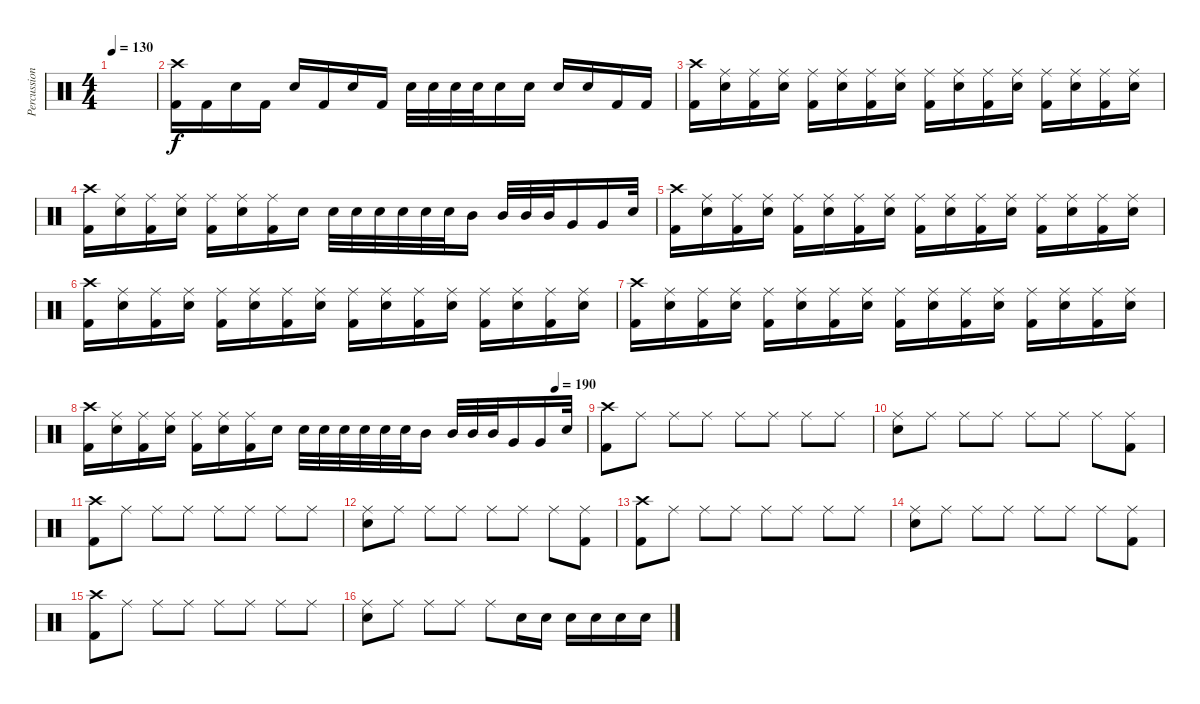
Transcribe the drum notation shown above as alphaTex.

\track ("Percussion" "Percussion") {instrument percussion}
\staff {score}
\articulation defaults
\ts (4 4)
\tempo 130
\clef neutral
\ks c
|
("Crash high (hit)" "Kick (hit) 2").16 "Kick (hit) 2".16 "Electric Snare (hit)".16 "Kick (hit) 2".16 "Electric Snare (hit)".16 "Kick (hit) 2".16 "Electric Snare (hit)".16 "Kick (hit) 2".16 "Electric Snare (hit)".32 "Electric Snare (hit)".32 "Electric Snare (hit)".32 "Electric Snare (hit)".32 "Electric Snare (hit)".16 "Electric Snare (hit)".16 "Electric Snare (hit)".16 "Electric Snare (hit)".16 "Kick (hit) 2".16 "Kick (hit) 2".16 |
("Crash high (hit)" "Kick (hit) 2").16 ("Ride (middle)" "Electric Snare (hit)").16 ("Ride (middle)" "Kick (hit) 2").16 ("Ride (middle)" "Electric Snare (hit)").16 ("Ride (middle)" "Kick (hit) 2").16 ("Ride (middle)" "Electric Snare (hit)").16 ("Ride (middle)" "Kick (hit) 2").16 ("Ride (middle)" "Electric Snare (hit)").16 ("Ride (middle)" "Kick (hit) 2").16 ("Ride (middle)" "Electric Snare (hit)").16 ("Ride (middle)" "Kick (hit) 2").16 ("Ride (middle)" "Electric Snare (hit)").16 ("Ride (middle)" "Kick (hit) 2").16 ("Ride (middle)" "Electric Snare (hit)").16 ("Ride (middle)" "Kick (hit) 2").16 ("Ride (middle)" "Electric Snare (hit)").16 |
("Crash high (hit)" "Kick (hit) 2").16 ("Ride (middle)" "Electric Snare (hit)").16 ("Ride (middle)" "Kick (hit) 2").16 ("Ride (middle)" "Electric Snare (hit)").16 ("Ride (middle)" "Kick (hit) 2").16 ("Ride (middle)" "Electric Snare (hit)").16 ("Ride (middle)" "Kick (hit) 2").16 "Electric Snare (hit)".16 "Electric Snare (hit)".32 "Electric Snare (hit)".32 "Electric Snare (hit)".32 "Electric Snare (hit)".32 "Electric Snare (hit)".32 "Electric Snare (hit)".32 "Mid Tom (hit)".16 "Mid Tom (hit)".32 "Mid Tom (hit)".32 "Mid Tom (hit)".32 "Very Low Tom (hit)".16 "Very Low Tom (hit)".16 "Electric Snare (hit)".32 |
("Crash high (hit)" "Kick (hit) 2").16 ("Ride (middle)" "Electric Snare (hit)").16 ("Ride (middle)" "Kick (hit) 2").16 ("Ride (middle)" "Electric Snare (hit)").16 ("Ride (middle)" "Kick (hit) 2").16 ("Ride (middle)" "Electric Snare (hit)").16 ("Ride (middle)" "Kick (hit) 2").16 ("Ride (middle)" "Electric Snare (hit)").16 ("Ride (middle)" "Kick (hit) 2").16 ("Ride (middle)" "Electric Snare (hit)").16 ("Ride (middle)" "Kick (hit) 2").16 ("Ride (middle)" "Electric Snare (hit)").16 ("Ride (middle)" "Kick (hit) 2").16 ("Ride (middle)" "Electric Snare (hit)").16 ("Ride (middle)" "Kick (hit) 2").16 ("Ride (middle)" "Electric Snare (hit)").16 |
("Crash high (hit)" "Kick (hit) 2").16 ("Ride (middle)" "Electric Snare (hit)").16 ("Ride (middle)" "Kick (hit) 2").16 ("Ride (middle)" "Electric Snare (hit)").16 ("Ride (middle)" "Kick (hit) 2").16 ("Ride (middle)" "Electric Snare (hit)").16 ("Ride (middle)" "Kick (hit) 2").16 ("Ride (middle)" "Electric Snare (hit)").16 ("Ride (middle)" "Kick (hit) 2").16 ("Ride (middle)" "Electric Snare (hit)").16 ("Ride (middle)" "Kick (hit) 2").16 ("Ride (middle)" "Electric Snare (hit)").16 ("Ride (middle)" "Kick (hit) 2").16 ("Ride (middle)" "Electric Snare (hit)").16 ("Ride (middle)" "Kick (hit) 2").16 ("Ride (middle)" "Electric Snare (hit)").16 |
("Crash high (hit)" "Kick (hit) 2").16 ("Ride (middle)" "Electric Snare (hit)").16 ("Ride (middle)" "Kick (hit) 2").16 ("Ride (middle)" "Electric Snare (hit)").16 ("Ride (middle)" "Kick (hit) 2").16 ("Ride (middle)" "Electric Snare (hit)").16 ("Ride (middle)" "Kick (hit) 2").16 ("Ride (middle)" "Electric Snare (hit)").16 ("Ride (middle)" "Kick (hit) 2").16 ("Ride (middle)" "Electric Snare (hit)").16 ("Ride (middle)" "Kick (hit) 2").16 ("Ride (middle)" "Electric Snare (hit)").16 ("Ride (middle)" "Kick (hit) 2").16 ("Ride (middle)" "Electric Snare (hit)").16 ("Ride (middle)" "Kick (hit) 2").16 ("Ride (middle)" "Electric Snare (hit)").16 |
\tempo (190 0.9375)
("Crash high (hit)" "Kick (hit) 2").16 ("Ride (middle)" "Electric Snare (hit)").16 ("Ride (middle)" "Kick (hit) 2").16 ("Ride (middle)" "Electric Snare (hit)").16 ("Ride (middle)" "Kick (hit) 2").16 ("Ride (middle)" "Electric Snare (hit)").16 ("Ride (middle)" "Kick (hit) 2").16 "Electric Snare (hit)".16 "Electric Snare (hit)".32 "Electric Snare (hit)".32 "Electric Snare (hit)".32 "Electric Snare (hit)".32 "Electric Snare (hit)".32 "Electric Snare (hit)".32 "Mid Tom (hit)".16 "Mid Tom (hit)".32 "Mid Tom (hit)".32 "Mid Tom (hit)".32 "Very Low Tom (hit)".16 "Very Low Tom (hit)".16 "Electric Snare (hit)".32 |
("Crash high (hit)" "Kick (hit) 2").8 "Ride (middle)".8 "Ride (middle)".8 "Ride (middle)".8 "Ride (middle)".8 "Ride (middle)".8 "Ride (middle)".8 "Ride (middle)".8 |
("Ride (middle)" "Electric Snare (hit)").8 "Ride (middle)".8 "Ride (middle)".8 "Ride (middle)".8 "Ride (middle)".8 "Ride (middle)".8 "Ride (middle)".8 ("Ride (middle)" "Kick (hit) 2").8 |
("Crash high (hit)" "Kick (hit) 2").8 "Ride (middle)".8 "Ride (middle)".8 "Ride (middle)".8 "Ride (middle)".8 "Ride (middle)".8 "Ride (middle)".8 "Ride (middle)".8 |
("Ride (middle)" "Electric Snare (hit)").8 "Ride (middle)".8 "Ride (middle)".8 "Ride (middle)".8 "Ride (middle)".8 "Ride (middle)".8 "Ride (middle)".8 ("Ride (middle)" "Kick (hit) 2").8 |
("Crash high (hit)" "Kick (hit) 2").8 "Ride (middle)".8 "Ride (middle)".8 "Ride (middle)".8 "Ride (middle)".8 "Ride (middle)".8 "Ride (middle)".8 "Ride (middle)".8 |
("Ride (middle)" "Electric Snare (hit)").8 "Ride (middle)".8 "Ride (middle)".8 "Ride (middle)".8 "Ride (middle)".8 "Ride (middle)".8 "Ride (middle)".8 ("Ride (middle)" "Kick (hit) 2").8 |
("Crash high (hit)" "Kick (hit) 2").8 "Ride (middle)".8 "Ride (middle)".8 "Ride (middle)".8 "Ride (middle)".8 "Ride (middle)".8 "Ride (middle)".8 "Ride (middle)".8 |
("Ride (middle)" "Electric Snare (hit)").8 "Ride (middle)".8 "Ride (middle)".8 "Ride (middle)".8 "Ride (middle)".8 "Electric Snare (hit)".16 "Electric Snare (hit)".16 "Electric Snare (hit)".16 "Electric Snare (hit)".16 "Electric Snare (hit)".16 "Electric Snare (hit)".16
